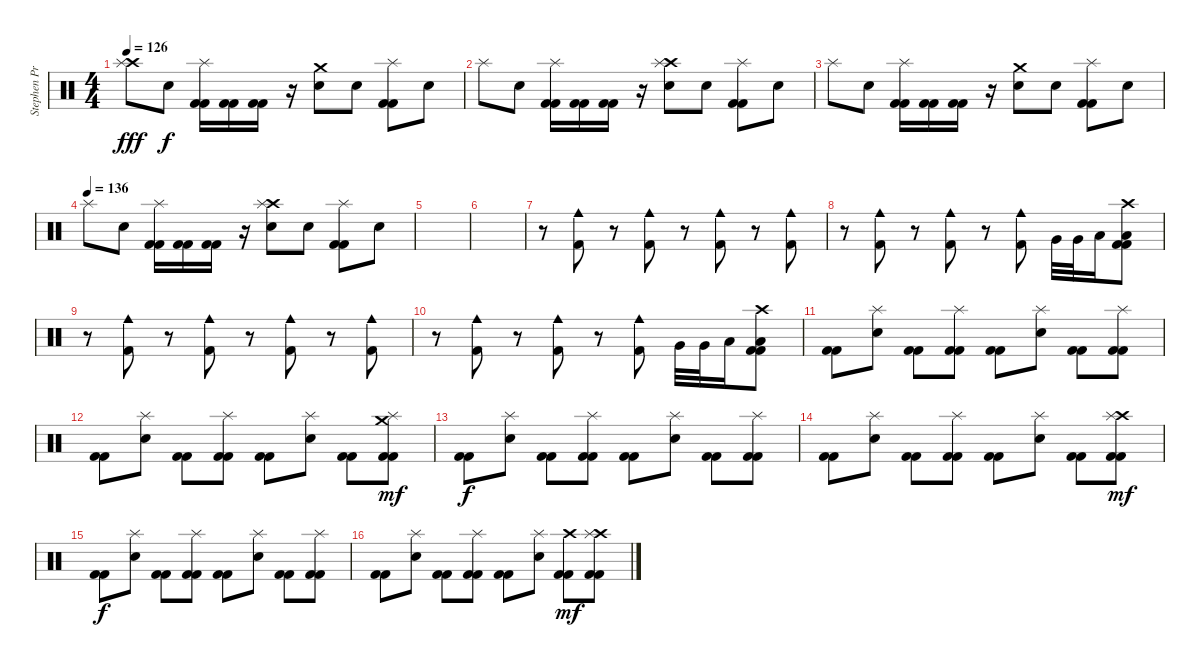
\track ("Stephen Priestly  (Drums)" "Stephen Pr") {instrument percussion}
\staff {score}
\articulation defaults
\ts (4 4)
\tempo 126
\clef neutral
\ks c
("Crash high (hit)" "Splash (hit)").8{dy fff} "Snare (hit)".8{dy f} ("Splash (hit)" "Kick (hit) 2" "Kick (hit) 2").16 ("Kick (hit) 2" "Kick (hit) 2").16 ("Kick (hit) 2" "Kick (hit) 2").16 r.16 ("Crash medium (hit)" "Electric Snare (hit)").8 "Snare (hit)".8 ("Splash (hit)" "Kick (hit) 2" "Kick (hit) 2").8 "Snare (hit)".8 |
"Splash (hit)".8 "Snare (hit)".8 ("Splash (hit)" "Kick (hit) 2" "Kick (hit) 2").16 ("Kick (hit) 2" "Kick (hit) 2").16 ("Kick (hit) 2" "Kick (hit) 2").16 r.16 ("Crash high (hit)" "Splash (hit)" "Electric Snare (hit)").8 "Snare (hit)".8 ("Splash (hit)" "Kick (hit) 2" "Kick (hit) 2").8 "Snare (hit)".8 |
"Splash (hit)".8 "Snare (hit)".8 ("Splash (hit)" "Kick (hit) 2" "Kick (hit) 2").16 ("Kick (hit) 2" "Kick (hit) 2").16 ("Kick (hit) 2" "Kick (hit) 2").16 r.16 ("Crash medium (hit)" "Electric Snare (hit)").8 "Snare (hit)".8 ("Splash (hit)" "Kick (hit) 2" "Kick (hit) 2").8 "Snare (hit)".8 |
\tempo (136)
"Splash (hit)".8 "Snare (hit)".8 ("Splash (hit)" "Kick (hit) 2" "Kick (hit) 2").16 ("Kick (hit) 2" "Kick (hit) 2").16 ("Kick (hit) 2" "Kick (hit) 2").16 r.16 ("Crash high (hit)" "Splash (hit)" "Electric Snare (hit)").8 "Snare (hit)".8 ("Splash (hit)" "Kick (hit) 2" "Kick (hit) 2").8 "Snare (hit)".8 |
|
|
r.8 ("Cowbell medium (hit)" "Kick (hit) 2").8 r.8 ("Cowbell medium (hit)" "Kick (hit) 2").8 r.8 ("Cowbell medium (hit)" "Kick (hit) 2").8 r.8 ("Cowbell medium (hit)" "Kick (hit) 2").8 |
r.8 ("Cowbell medium (hit)" "Kick (hit) 2").8 r.8 ("Cowbell medium (hit)" "Kick (hit) 2").8 r.8 ("Cowbell medium (hit)" "Kick (hit) 2").8 "Very Low Tom (hit)".32 "Very Low Tom (hit)".32 "Low Floor Tom (hit)".16 ("Kick (hit) 2" "Low Floor Tom (hit)" "Crash high (hit)" "Kick (hit) 2").8 |
r.8 ("Cowbell medium (hit)" "Kick (hit) 2").8 r.8 ("Cowbell medium (hit)" "Kick (hit) 2").8 r.8 ("Cowbell medium (hit)" "Kick (hit) 2").8 r.8 ("Cowbell medium (hit)" "Kick (hit) 2").8 |
r.8 ("Cowbell medium (hit)" "Kick (hit) 2").8 r.8 ("Cowbell medium (hit)" "Kick (hit) 2").8 r.8 ("Cowbell medium (hit)" "Kick (hit) 2").8 "Very Low Tom (hit)".32 "Very Low Tom (hit)".32 "Low Floor Tom (hit)".16 ("Kick (hit) 2" "Low Floor Tom (hit)" "Crash high (hit)" "Kick (hit) 2").8 |
("Kick (hit) 2" "Kick (hit) 2").8 ("Electric Snare (hit)" "Splash (hit)").8 ("Kick (hit) 2" "Kick (hit) 2").8 ("Splash (hit)" "Kick (hit) 2" "Kick (hit) 2").8 ("Kick (hit) 2" "Kick (hit) 2").8 ("Electric Snare (hit)" "Splash (hit)").8 ("Kick (hit) 2" "Kick (hit) 2").8 ("Splash (hit)" "Kick (hit) 2" "Kick (hit) 2").8 |
("Kick (hit) 2" "Kick (hit) 2").8 ("Electric Snare (hit)" "Splash (hit)").8 ("Kick (hit) 2" "Kick (hit) 2").8 ("Splash (hit)" "Kick (hit) 2" "Kick (hit) 2").8 ("Kick (hit) 2" "Kick (hit) 2").8 ("Electric Snare (hit)" "Splash (hit)").8 ("Kick (hit) 2" "Kick (hit) 2").8 ("Crash medium (hit)" "Splash (hit)" "Kick (hit) 2" "Kick (hit) 2").8{dy mf} |
("Kick (hit) 2" "Kick (hit) 2").8{dy f} ("Electric Snare (hit)" "Splash (hit)").8 ("Kick (hit) 2" "Kick (hit) 2").8 ("Splash (hit)" "Kick (hit) 2" "Kick (hit) 2").8 ("Kick (hit) 2" "Kick (hit) 2").8 ("Electric Snare (hit)" "Splash (hit)").8 ("Kick (hit) 2" "Kick (hit) 2").8 ("Splash (hit)" "Kick (hit) 2" "Kick (hit) 2").8 |
("Kick (hit) 2" "Kick (hit) 2").8 ("Electric Snare (hit)" "Splash (hit)").8 ("Kick (hit) 2" "Kick (hit) 2").8 ("Splash (hit)" "Kick (hit) 2" "Kick (hit) 2").8 ("Kick (hit) 2" "Kick (hit) 2").8 ("Electric Snare (hit)" "Splash (hit)").8 ("Kick (hit) 2" "Kick (hit) 2").8 ("Crash high (hit)" "Splash (hit)" "Kick (hit) 2" "Kick (hit) 2").8{dy mf} |
("Kick (hit) 2" "Kick (hit) 2").8{dy f} ("Electric Snare (hit)" "Splash (hit)").8 ("Kick (hit) 2" "Kick (hit) 2").8 ("Splash (hit)" "Kick (hit) 2" "Kick (hit) 2").8 ("Kick (hit) 2" "Kick (hit) 2").8 ("Electric Snare (hit)" "Splash (hit)").8 ("Kick (hit) 2" "Kick (hit) 2").8 ("Splash (hit)" "Kick (hit) 2" "Kick (hit) 2").8 |
("Kick (hit) 2" "Kick (hit) 2").8 ("Electric Snare (hit)" "Splash (hit)").8 ("Kick (hit) 2" "Kick (hit) 2").8 ("Splash (hit)" "Kick (hit) 2" "Kick (hit) 2").8 ("Kick (hit) 2" "Kick (hit) 2").8 ("Electric Snare (hit)" "Splash (hit)").8 ("Crash high (hit)" "Kick (hit) 2" "Kick (hit) 2").8{dy mf} ("Crash high (hit)" "Splash (hit)" "Kick (hit) 2" "Kick (hit) 2").8
